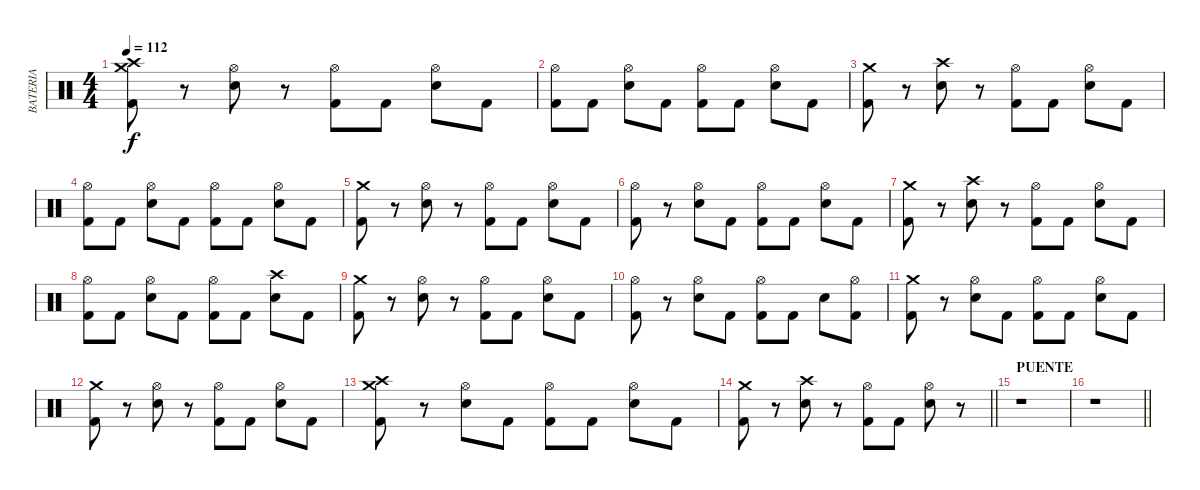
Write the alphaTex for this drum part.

\track ("BATERIA" "BATERIA") {instrument percussion}
\staff {score}
\articulation defaults
\ts (4 4)
\tempo 112
\clef neutral
\ks c
("Kick (hit) 2" "Crash high (hit)" "Crash medium (hit)").8{dy f} r.8 ("Hi-Hat (open)" "Electric Snare (hit)").8 r.8 ("Kick (hit) 2" "Hi-Hat (open)").8 "Kick (hit) 2".8 ("Hi-Hat (open)" "Electric Snare (hit)").8 "Kick (hit) 2".8 |
("Kick (hit) 2" "Hi-Hat (open)").8 "Kick (hit) 2".8 ("Hi-Hat (open)" "Electric Snare (hit)").8 "Kick (hit) 2".8 ("Kick (hit) 2" "Hi-Hat (open)").8 "Kick (hit) 2".8 ("Hi-Hat (open)" "Electric Snare (hit)").8 "Kick (hit) 2".8 |
("Kick (hit) 2" "Crash medium (hit)").8 r.8 ("Electric Snare (hit)" "Crash high (hit)").8 r.8 ("Kick (hit) 2" "Hi-Hat (open)").8 "Kick (hit) 2".8 ("Hi-Hat (open)" "Electric Snare (hit)").8 "Kick (hit) 2".8 |
("Kick (hit) 2" "Hi-Hat (open)").8 "Kick (hit) 2".8 ("Hi-Hat (open)" "Electric Snare (hit)").8 "Kick (hit) 2".8 ("Kick (hit) 2" "Hi-Hat (open)").8 "Kick (hit) 2".8 ("Hi-Hat (open)" "Electric Snare (hit)").8 "Kick (hit) 2".8 |
("Kick (hit) 2" "Crash medium (hit)").8 r.8 ("Hi-Hat (open)" "Electric Snare (hit)").8 r.8 ("Kick (hit) 2" "Hi-Hat (open)").8 "Kick (hit) 2".8 ("Hi-Hat (open)" "Electric Snare (hit)").8 "Kick (hit) 2".8 |
("Kick (hit) 2" "Hi-Hat (open)").8 r.8 ("Hi-Hat (open)" "Electric Snare (hit)").8 "Kick (hit) 2".8 ("Kick (hit) 2" "Hi-Hat (open)").8 "Kick (hit) 2".8 ("Hi-Hat (open)" "Electric Snare (hit)").8 "Kick (hit) 2".8 |
("Kick (hit) 2" "Crash medium (hit)").8 r.8 ("Electric Snare (hit)" "Crash high (hit)").8 r.8 ("Kick (hit) 2" "Hi-Hat (open)").8 "Kick (hit) 2".8 ("Hi-Hat (open)" "Electric Snare (hit)").8 "Kick (hit) 2".8 |
("Kick (hit) 2" "Hi-Hat (open)").8 "Kick (hit) 2".8 ("Hi-Hat (open)" "Electric Snare (hit)").8 "Kick (hit) 2".8 ("Kick (hit) 2" "Hi-Hat (open)").8 "Kick (hit) 2".8 ("Electric Snare (hit)" "Crash high (hit)").8 "Kick (hit) 2".8 |
("Kick (hit) 2" "Crash medium (hit)").8 r.8 ("Hi-Hat (open)" "Electric Snare (hit)").8 r.8 ("Kick (hit) 2" "Hi-Hat (open)").8 "Kick (hit) 2".8 ("Hi-Hat (open)" "Electric Snare (hit)").8 "Kick (hit) 2".8 |
("Kick (hit) 2" "Hi-Hat (open)").8 r.8 ("Hi-Hat (open)" "Electric Snare (hit)").8 "Kick (hit) 2".8 ("Kick (hit) 2" "Hi-Hat (open)").8 "Kick (hit) 2".8 "Electric Snare (hit)".8 ("Kick (hit) 2" "Hi-Hat (open)").8 |
("Kick (hit) 2" "Crash medium (hit)").8 r.8 ("Hi-Hat (open)" "Electric Snare (hit)").8 "Kick (hit) 2".8 ("Kick (hit) 2" "Hi-Hat (open)").8 "Kick (hit) 2".8 ("Hi-Hat (open)" "Electric Snare (hit)").8 "Kick (hit) 2".8 |
("Kick (hit) 2" "Crash medium (hit)").8 r.8 ("Hi-Hat (open)" "Electric Snare (hit)").8 r.8 ("Kick (hit) 2" "Hi-Hat (open)").8 "Kick (hit) 2".8 ("Hi-Hat (open)" "Electric Snare (hit)").8 "Kick (hit) 2".8 |
("Kick (hit) 2" "Crash medium (hit)" "Crash high (hit)").8 r.8 ("Hi-Hat (open)" "Electric Snare (hit)").8 "Kick (hit) 2".8 ("Kick (hit) 2" "Hi-Hat (open)").8 "Kick (hit) 2".8 ("Hi-Hat (open)" "Electric Snare (hit)").8 "Kick (hit) 2".8 |
\barLineRight lightlight
("Kick (hit) 2" "Crash medium (hit)").8 r.8 ("Electric Snare (hit)" "Crash high (hit)").8 r.8 ("Kick (hit) 2" "Hi-Hat (open)").8 "Kick (hit) 2".8 ("Hi-Hat (open)" "Electric Snare (hit)").8 r.8 |
\section ("" "PUENTE")
r.1 |
\barLineRight lightlight
r.1
